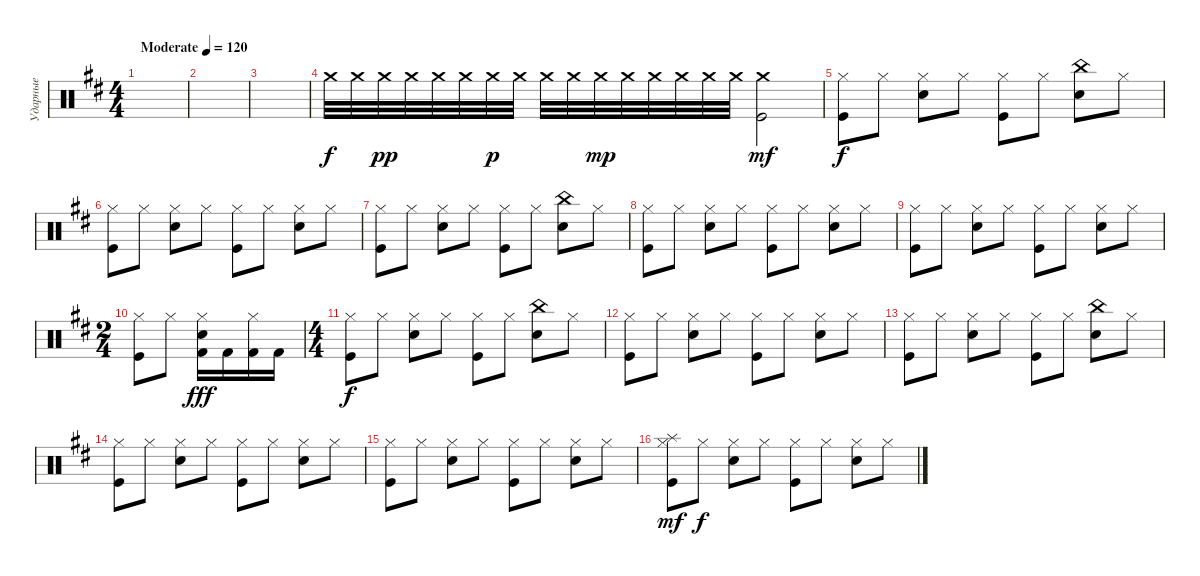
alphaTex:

\track ("Ударные" "Ударные") {instrument percussion}
\staff {score}
\articulation defaults
\ts (4 4)
\tempo (120 "Moderate")
\clef neutral
\ks bminor
|
|
|
"Crash medium (hit)".32 "Crash medium (hit)".32 "Crash medium (hit)".32{dy pp} "Crash medium (hit)".32 "Crash medium (hit)".32 "Crash medium (hit)".32 "Crash medium (hit)".32{dy p} "Crash medium (hit)".32 "Crash medium (hit)".32 "Crash medium (hit)".32 "Crash medium (hit)".32{dy mp} "Crash medium (hit)".32 "Crash medium (hit)".32 "Crash medium (hit)".32 "Crash medium (hit)".32 "Crash medium (hit)".32 ("Crash medium (hit)" "Kick (hit)").2{dy mf} |
\ks d
("Hi-Hat (closed)" "Kick (hit)").8{dy f} "Hi-Hat (closed)".8 ("Hi-Hat (closed)" "Snare (hit) 2").8 "Hi-Hat (closed)".8 ("Hi-Hat (closed)" "Kick (hit)").8 "Hi-Hat (closed)".8 ("China (hit)" "Snare (hit) 2").8 "Hi-Hat (closed)".8 |
("Hi-Hat (closed)" "Kick (hit)").8 "Hi-Hat (closed)".8 ("Hi-Hat (closed)" "Snare (hit) 2").8 "Hi-Hat (closed)".8 ("Hi-Hat (closed)" "Kick (hit)").8 "Hi-Hat (closed)".8 ("Hi-Hat (closed)" "Snare (hit) 2").8 "Hi-Hat (closed)".8 |
("Hi-Hat (closed)" "Kick (hit)").8 "Hi-Hat (closed)".8 ("Hi-Hat (closed)" "Snare (hit) 2").8 "Hi-Hat (closed)".8 ("Hi-Hat (closed)" "Kick (hit)").8 "Hi-Hat (closed)".8 ("China (hit)" "Snare (hit) 2").8{balance 14} "Hi-Hat (closed)".8{balance 8} |
("Hi-Hat (closed)" "Kick (hit)").8 "Hi-Hat (closed)".8 ("Hi-Hat (closed)" "Snare (hit) 2").8 "Hi-Hat (closed)".8 ("Hi-Hat (closed)" "Kick (hit)").8 "Hi-Hat (closed)".8 ("Hi-Hat (closed)" "Snare (hit) 2").8 "Hi-Hat (closed)".8 |
("Hi-Hat (closed)" "Kick (hit)").8 "Hi-Hat (closed)".8 ("Hi-Hat (closed)" "Snare (hit) 2").8 "Hi-Hat (closed)".8 ("Hi-Hat (closed)" "Kick (hit)").8 "Hi-Hat (closed)".8 ("Hi-Hat (closed)" "Snare (hit) 2").8 "Hi-Hat (closed)".8 |
\ts (2 4)
("Hi-Hat (closed)" "Kick (hit)").8 "Hi-Hat (closed)".8 ("Hi-Hat (closed)" "Snare (hit) 2" "Kick (hit) 2").16{dy fff} "Kick (hit) 2".16 ("Hi-Hat (closed)" "Kick (hit) 2").16 "Kick (hit) 2".16 |
\ts (4 4)
("Hi-Hat (closed)" "Kick (hit)").8{dy f} "Hi-Hat (closed)".8 ("Hi-Hat (closed)" "Snare (hit) 2").8 "Hi-Hat (closed)".8 ("Hi-Hat (closed)" "Kick (hit)").8 "Hi-Hat (closed)".8 ("China (hit)" "Snare (hit) 2").8 "Hi-Hat (closed)".8 |
("Hi-Hat (closed)" "Kick (hit)").8 "Hi-Hat (closed)".8 ("Hi-Hat (closed)" "Snare (hit) 2").8 "Hi-Hat (closed)".8 ("Hi-Hat (closed)" "Kick (hit)").8 "Hi-Hat (closed)".8 ("Hi-Hat (closed)" "Snare (hit) 2").8 "Hi-Hat (closed)".8 |
("Hi-Hat (closed)" "Kick (hit)").8 "Hi-Hat (closed)".8 ("Hi-Hat (closed)" "Snare (hit) 2").8 "Hi-Hat (closed)".8 ("Hi-Hat (closed)" "Kick (hit)").8 "Hi-Hat (closed)".8 ("China (hit)" "Snare (hit) 2").8 "Hi-Hat (closed)".8 |
("Hi-Hat (closed)" "Kick (hit)").8 "Hi-Hat (closed)".8 ("Hi-Hat (closed)" "Snare (hit) 2").8 "Hi-Hat (closed)".8 ("Hi-Hat (closed)" "Kick (hit)").8 "Hi-Hat (closed)".8 ("Hi-Hat (closed)" "Snare (hit) 2").8 "Hi-Hat (closed)".8 |
("Hi-Hat (closed)" "Kick (hit)").8 "Hi-Hat (closed)".8 ("Hi-Hat (closed)" "Snare (hit) 2").8 "Hi-Hat (closed)".8 ("Hi-Hat (closed)" "Kick (hit)").8 "Hi-Hat (closed)".8 ("Hi-Hat (closed)" "Snare (hit) 2").8 "Hi-Hat (closed)".8 |
\ks bminor
("Hi-Hat (closed)" "Kick (hit)" "Splash (hit)").8{dy mf} "Hi-Hat (closed)".8{dy f} ("Hi-Hat (closed)" "Snare (hit) 2").8 "Hi-Hat (closed)".8 ("Hi-Hat (closed)" "Kick (hit)").8 "Hi-Hat (closed)".8 ("Hi-Hat (closed)" "Snare (hit) 2").8 "Hi-Hat (closed)".8
